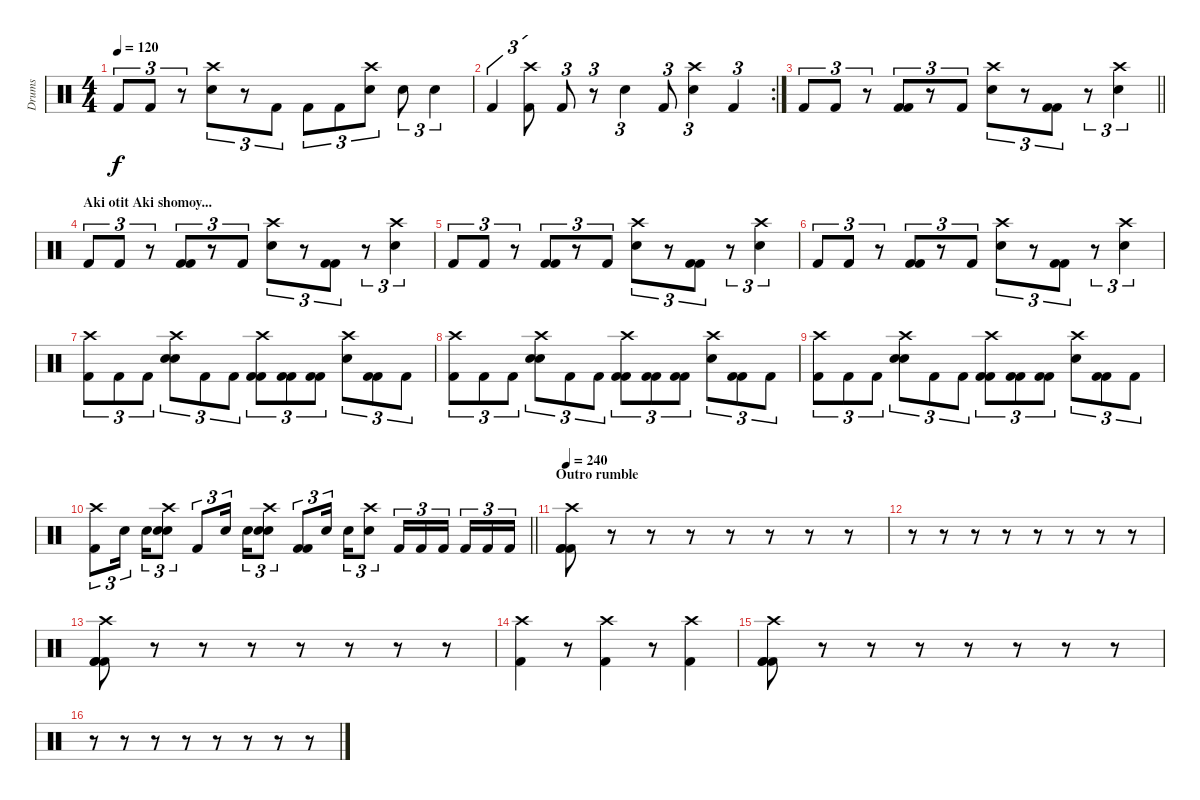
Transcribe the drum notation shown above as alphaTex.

\track ("Drums" "Drums") {instrument percussion}
\staff {score}
\articulation defaults
\ts (4 4)
\tempo 120
\clef neutral
\ks c "Kick (hit) 2".8{tu (3 2) dy f} "Kick (hit) 2".8{tu (3 2)}
r.8{tu (3 2)} ("Electric Snare (hit)" "Crash high (hit)").8{tu (3 2)} r.8{tu (3 2)} "Kick (hit) 2".8{tu (3 2)} "Kick (hit) 2".8{tu (3 2)} "Kick (hit) 2".8{tu (3 2)} ("Crash high (hit)" "Electric Snare (hit)").8{tu (3 2)} "Electric Snare (hit)".8{tu (3 2)} "Electric Snare (hit)".4{tu (3 2)} |
\rc 2 "Kick (hit) 2".4{tu (3 2)}
("Crash high (hit)" "Kick (hit) 2").8{tu (3 2)} "Kick (hit) 2".8{tu (3 2)} r.8{tu (3 2)} "Electric Snare (hit)".4{tu (3 2)} "Kick (hit) 2".8{tu (3 2)} ("Crash high (hit)" "Electric Snare (hit)").4{tu (3 2)} "Kick (hit) 2".4{tu (3 2)} |
\barLineRight lightlight "Kick (hit) 2".8{tu (3 2)} "Kick (hit) 2".8{tu (3 2)}
r.8{tu (3 2)} ("Kick (hit) 2" "Kick (hit) 2").8{tu (3 2)} r.8{tu (3 2)} "Kick (hit) 2".8{tu (3 2)} ("Electric Snare (hit)" "Crash high (hit)").8{tu (3 2)} r.8{tu (3 2)} ("Kick (hit) 2" "Kick (hit) 2").8{tu (3 2)} r.8{tu (3 2)} ("Electric Snare (hit)" "Crash high (hit)").4{tu (3 2)} |
\section ("" "Aki otit Aki shomoy...")
"Kick (hit) 2".8{tu (3 2)} "Kick (hit) 2".8{tu (3 2)} r.8{tu (3 2)} ("Kick (hit) 2" "Kick (hit) 2").8{tu (3 2)} r.8{tu (3 2)} "Kick (hit) 2".8{tu (3 2)} ("Electric Snare (hit)" "Crash high (hit)").8{tu (3 2)} r.8{tu (3 2)} ("Kick (hit) 2" "Kick (hit) 2").8{tu (3 2)} r.8{tu (3 2)} ("Electric Snare (hit)" "Crash high (hit)").4{tu (3 2)} |
"Kick (hit) 2".8{tu (3 2)} "Kick (hit) 2".8{tu (3 2)} r.8{tu (3 2)} ("Kick (hit) 2" "Kick (hit) 2").8{tu (3 2)} r.8{tu (3 2)} "Kick (hit) 2".8{tu (3 2)} ("Electric Snare (hit)" "Crash high (hit)").8{tu (3 2)} r.8{tu (3 2)} ("Kick (hit) 2" "Kick (hit) 2").8{tu (3 2)} r.8{tu (3 2)} ("Electric Snare (hit)" "Crash high (hit)").4{tu (3 2)} |
"Kick (hit) 2".8{tu (3 2)} "Kick (hit) 2".8{tu (3 2)} r.8{tu (3 2)} ("Kick (hit) 2" "Kick (hit) 2").8{tu (3 2)} r.8{tu (3 2)} "Kick (hit) 2".8{tu (3 2)} ("Electric Snare (hit)" "Crash high (hit)").8{tu (3 2)} r.8{tu (3 2)} ("Kick (hit) 2" "Kick (hit) 2").8{tu (3 2)} r.8{tu (3 2)} ("Electric Snare (hit)" "Crash high (hit)").4{tu (3 2)} |
("Kick (hit) 2" "Crash high (hit)").8{tu (3 2)} "Kick (hit) 2".8{tu (3 2)} "Kick (hit) 2".8{tu (3 2)} ("Electric Snare (hit)" "Electric Snare (hit)" "Crash high (hit)").8{tu (3 2)} "Kick (hit) 2".8{tu (3 2)} "Kick (hit) 2".8{tu (3 2)} ("Kick (hit) 2" "Kick (hit) 2" "Crash high (hit)").8{tu (3 2)} ("Kick (hit) 2" "Kick (hit) 2").8{tu (3 2)} ("Kick (hit) 2" "Kick (hit) 2").8{tu (3 2)} ("Crash high (hit)" "Electric Snare (hit)").8{tu (3 2)} ("Kick (hit) 2" "Kick (hit) 2").8{tu (3 2)} "Kick (hit) 2".8{tu (3 2)} |
("Kick (hit) 2" "Crash high (hit)").8{tu (3 2)} "Kick (hit) 2".8{tu (3 2)} "Kick (hit) 2".8{tu (3 2)} ("Electric Snare (hit)" "Electric Snare (hit)" "Crash high (hit)").8{tu (3 2)} "Kick (hit) 2".8{tu (3 2)} "Kick (hit) 2".8{tu (3 2)} ("Kick (hit) 2" "Kick (hit) 2" "Crash high (hit)").8{tu (3 2)} ("Kick (hit) 2" "Kick (hit) 2").8{tu (3 2)} ("Kick (hit) 2" "Kick (hit) 2").8{tu (3 2)} ("Crash high (hit)" "Electric Snare (hit)").8{tu (3 2)} ("Kick (hit) 2" "Kick (hit) 2").8{tu (3 2)} "Kick (hit) 2".8{tu (3 2)} |
("Kick (hit) 2" "Crash high (hit)").8{tu (3 2)} "Kick (hit) 2".8{tu (3 2)} "Kick (hit) 2".8{tu (3 2)} ("Electric Snare (hit)" "Electric Snare (hit)" "Crash high (hit)").8{tu (3 2)} "Kick (hit) 2".8{tu (3 2)} "Kick (hit) 2".8{tu (3 2)} ("Kick (hit) 2" "Kick (hit) 2" "Crash high (hit)").8{tu (3 2)} ("Kick (hit) 2" "Kick (hit) 2").8{tu (3 2)} ("Kick (hit) 2" "Kick (hit) 2").8{tu (3 2)} ("Crash high (hit)" "Electric Snare (hit)").8{tu (3 2)} ("Kick (hit) 2" "Kick (hit) 2").8{tu (3 2)} "Kick (hit) 2".8{tu (3 2)} |
\barLineRight lightlight
("Kick (hit) 2" "Crash high (hit)").8{tu (3 2)} "Electric Snare (hit)".16{tu (3 2) beam splitsecondary} "Electric Snare (hit)".16{tu (3 2)} ("Electric Snare (hit)" "Electric Snare (hit)" "Crash high (hit)").8{tu (3 2)} "Kick (hit) 2".8{tu (3 2)} "Electric Snare (hit)".16{tu (3 2) beam splitsecondary} "Electric Snare (hit)".16{tu (3 2)} ("Electric Snare (hit)" "Electric Snare (hit)" "Crash high (hit)").8{tu (3 2)} ("Kick (hit) 2" "Kick (hit) 2").8{tu (3 2)} "Electric Snare (hit)".16{tu (3 2) beam splitsecondary} "Electric Snare (hit)".16{tu (3 2)} ("Crash high (hit)" "Electric Snare (hit)").8{tu (3 2)} "Kick (hit) 2".16{tu (3 2)} "Kick (hit) 2".16{tu (3 2)} "Kick (hit) 2".16{tu (3 2) beam splitsecondary} "Kick (hit) 2".16{tu (3 2)} "Kick (hit) 2".16{tu (3 2)} "Kick (hit) 2".16{tu (3 2)} |
\section ("" "Outro rumble")
\tempo 240
("Crash high (hit)" "Kick (hit) 2" "Kick (hit) 2" "Kick (hit) 2").8 r.8 r.8 r.8 r.8 r.8 r.8 r.8 |
r.8 r.8 r.8 r.8 r.8 r.8 r.8 r.8 |
("Crash high (hit)" "Kick (hit) 2" "Kick (hit) 2" "Kick (hit) 2").8 r.8 r.8 r.8 r.8 r.8 r.8 r.8 |
("Crash high (hit)" "Kick (hit) 2").4 r.8 ("Crash high (hit)" "Kick (hit) 2").4 r.8 ("Crash high (hit)" "Kick (hit) 2").4 |
("Crash high (hit)" "Kick (hit) 2" "Kick (hit) 2" "Kick (hit) 2").8 r.8 r.8 r.8 r.8 r.8 r.8 r.8 |
r.8 r.8 r.8 r.8 r.8 r.8 r.8 r.8
